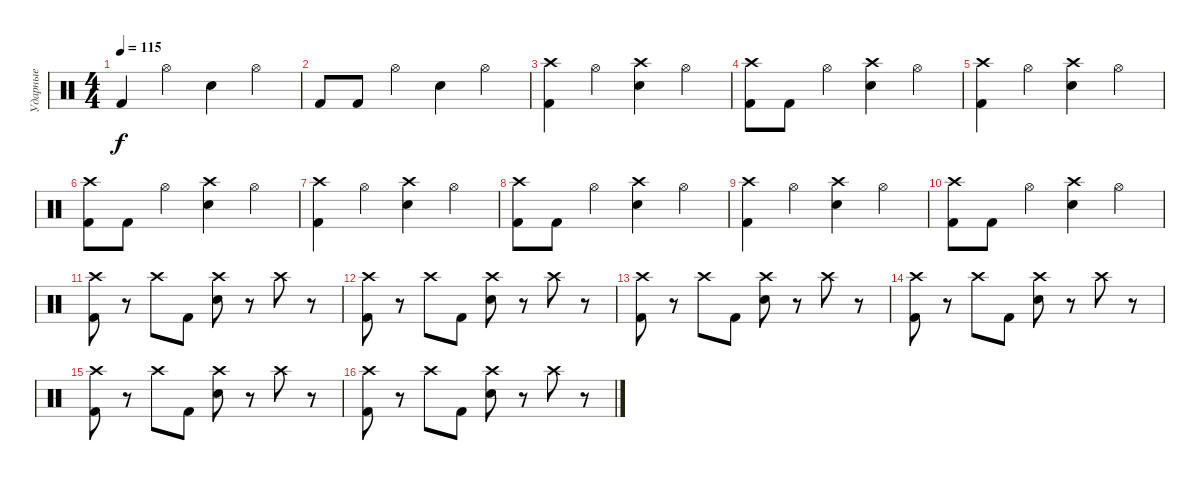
\track ("Ударные" "Ударные") {mute instrument percussion}
\staff {score}
\articulation defaults
\ts (4 4)
\tempo 115
\clef neutral
\ks c "Kick (hit) 2".4{dy f} "Hi-Hat (open)".4 "Electric Snare (hit)".4 "Hi-Hat (open)".4
|
"Kick (hit) 2".8 "Kick (hit) 2".8 "Hi-Hat (open)".4 "Electric Snare (hit)".4 "Hi-Hat (open)".4 |
("Crash high (hit)" "Kick (hit) 2").4 "Hi-Hat (open)".4 ("Crash high (hit)" "Electric Snare (hit)").4 "Hi-Hat (open)".4 |
("Crash high (hit)" "Kick (hit) 2").8 "Kick (hit) 2".8 "Hi-Hat (open)".4 ("Crash high (hit)" "Electric Snare (hit)").4 "Hi-Hat (open)".4 |
("Crash high (hit)" "Kick (hit) 2").4 "Hi-Hat (open)".4 ("Crash high (hit)" "Electric Snare (hit)").4 "Hi-Hat (open)".4 |
("Crash high (hit)" "Kick (hit) 2").8 "Kick (hit) 2".8 "Hi-Hat (open)".4 ("Crash high (hit)" "Electric Snare (hit)").4 "Hi-Hat (open)".4 |
("Crash high (hit)" "Kick (hit) 2").4 "Hi-Hat (open)".4 ("Crash high (hit)" "Electric Snare (hit)").4 "Hi-Hat (open)".4 |
("Crash high (hit)" "Kick (hit) 2").8 "Kick (hit) 2".8 "Hi-Hat (open)".4 ("Crash high (hit)" "Electric Snare (hit)").4 "Hi-Hat (open)".4 |
("Crash high (hit)" "Kick (hit) 2").4 "Hi-Hat (open)".4 ("Crash high (hit)" "Electric Snare (hit)").4 "Hi-Hat (open)".4 |
("Crash high (hit)" "Kick (hit) 2").8 "Kick (hit) 2".8 "Hi-Hat (open)".4 ("Crash high (hit)" "Electric Snare (hit)").4 "Hi-Hat (open)".4 |
("Kick (hit) 2" "Crash high (hit)").8 r.8 "Crash high (hit)".8 "Kick (hit) 2".8 ("Electric Snare (hit)" "Crash high (hit)").8 r.8 "Crash high (hit)".8 r.8 |
("Kick (hit) 2" "Crash high (hit)").8 r.8 "Crash high (hit)".8 "Kick (hit) 2".8 ("Electric Snare (hit)" "Crash high (hit)").8 r.8 "Crash high (hit)".8 r.8 |
("Kick (hit) 2" "Crash high (hit)").8 r.8 "Crash high (hit)".8 "Kick (hit) 2".8 ("Electric Snare (hit)" "Crash high (hit)").8 r.8 "Crash high (hit)".8 r.8 |
("Kick (hit) 2" "Crash high (hit)").8 r.8 "Crash high (hit)".8 "Kick (hit) 2".8 ("Electric Snare (hit)" "Crash high (hit)").8 r.8 "Crash high (hit)".8 r.8 |
("Kick (hit) 2" "Crash high (hit)").8 r.8 "Crash high (hit)".8 "Kick (hit) 2".8 ("Electric Snare (hit)" "Crash high (hit)").8 r.8 "Crash high (hit)".8 r.8 |
("Kick (hit) 2" "Crash high (hit)").8 r.8 "Crash high (hit)".8 "Kick (hit) 2".8 ("Electric Snare (hit)" "Crash high (hit)").8 r.8 "Crash high (hit)".8 r.8
